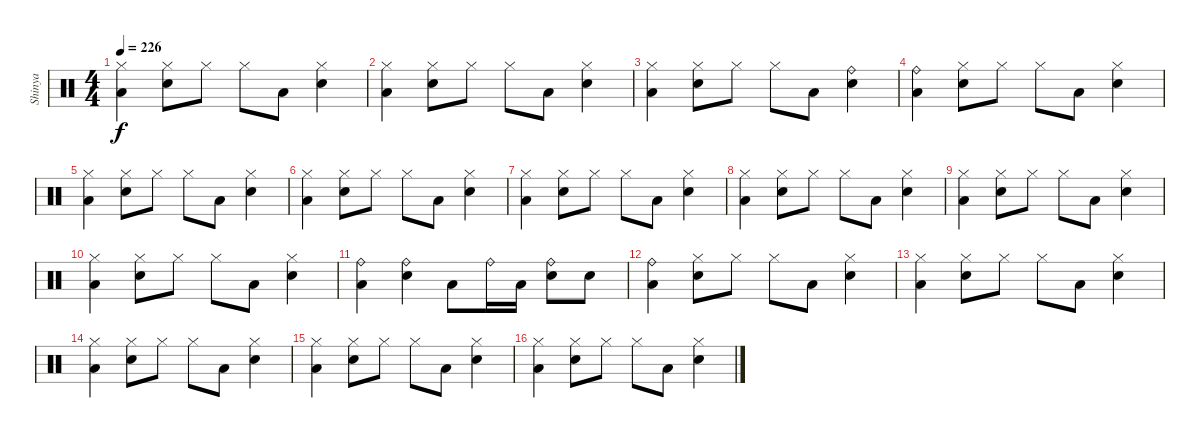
\track ("Shinya" "Shinya") {instrument percussion}
\staff {score}
\articulation defaults
\ts (4 4)
\tempo 226
\clef neutral
\ks c
("Hi-Hat (closed)" "Low Floor Tom (hit)").4{dy f} ("Hi-Hat (closed)" "Snare (hit) 2").8 "Hi-Hat (closed)".8 "Hi-Hat (closed)".8 "Low Floor Tom (hit)".8 ("Hi-Hat (closed)" "Snare (hit) 2").4 |
("Hi-Hat (closed)" "Low Floor Tom (hit)").4 ("Hi-Hat (closed)" "Snare (hit) 2").8 "Hi-Hat (closed)".8 "Hi-Hat (closed)".8 "Low Floor Tom (hit)".8 ("Hi-Hat (closed)" "Snare (hit) 2").4 |
("Hi-Hat (closed)" "Low Floor Tom (hit)").4 ("Hi-Hat (closed)" "Snare (hit) 2").8 "Hi-Hat (closed)".8 "Hi-Hat (closed)".8 "Low Floor Tom (hit)".8 ("Ride (bell)" "Snare (hit) 2").4 |
("Ride (bell)" "Low Floor Tom (hit)").4 ("Hi-Hat (closed)" "Snare (hit) 2").8 "Hi-Hat (closed)".8 "Hi-Hat (closed)".8 "Low Floor Tom (hit)".8 ("Hi-Hat (closed)" "Snare (hit) 2").4 |
("Hi-Hat (closed)" "Low Floor Tom (hit)").4 ("Hi-Hat (closed)" "Snare (hit) 2").8 "Hi-Hat (closed)".8 "Hi-Hat (closed)".8 "Low Floor Tom (hit)".8 ("Hi-Hat (closed)" "Snare (hit) 2").4 |
("Hi-Hat (closed)" "Low Floor Tom (hit)").4 ("Hi-Hat (closed)" "Snare (hit) 2").8 "Hi-Hat (closed)".8 "Hi-Hat (closed)".8 "Low Floor Tom (hit)".8 ("Hi-Hat (closed)" "Snare (hit) 2").4 |
("Hi-Hat (closed)" "Low Floor Tom (hit)").4 ("Hi-Hat (closed)" "Snare (hit) 2").8 "Hi-Hat (closed)".8 "Hi-Hat (closed)".8 "Low Floor Tom (hit)".8 ("Hi-Hat (closed)" "Snare (hit) 2").4 |
("Hi-Hat (closed)" "Low Floor Tom (hit)").4 ("Hi-Hat (closed)" "Snare (hit) 2").8 "Hi-Hat (closed)".8 "Hi-Hat (closed)".8 "Low Floor Tom (hit)".8 ("Hi-Hat (closed)" "Snare (hit) 2").4 |
("Hi-Hat (closed)" "Low Floor Tom (hit)").4 ("Hi-Hat (closed)" "Snare (hit) 2").8 "Hi-Hat (closed)".8 "Hi-Hat (closed)".8 "Low Floor Tom (hit)".8 ("Hi-Hat (closed)" "Snare (hit) 2").4 |
("Hi-Hat (closed)" "Low Floor Tom (hit)").4 ("Hi-Hat (closed)" "Snare (hit) 2").8 "Hi-Hat (closed)".8 "Hi-Hat (closed)".8 "Low Floor Tom (hit)".8 ("Hi-Hat (closed)" "Snare (hit) 2").4 |
("Ride (bell)" "Low Floor Tom (hit)").4 ("Ride (bell)" "Snare (hit) 2").4 "Low Floor Tom (hit)".8 "Ride (bell)".16 "Low Floor Tom (hit)".16 ("Ride (bell)" "Snare (hit) 2").8 "Snare (hit) 2".8 |
("Ride (bell)" "Low Floor Tom (hit)").4 ("Hi-Hat (closed)" "Snare (hit) 2").8 "Hi-Hat (closed)".8 "Hi-Hat (closed)".8 "Low Floor Tom (hit)".8 ("Hi-Hat (closed)" "Snare (hit) 2").4 |
("Hi-Hat (closed)" "Low Floor Tom (hit)").4 ("Hi-Hat (closed)" "Snare (hit) 2").8 "Hi-Hat (closed)".8 "Hi-Hat (closed)".8 "Low Floor Tom (hit)".8 ("Hi-Hat (closed)" "Snare (hit) 2").4 |
("Hi-Hat (closed)" "Low Floor Tom (hit)").4 ("Hi-Hat (closed)" "Snare (hit) 2").8 "Hi-Hat (closed)".8 "Hi-Hat (closed)".8 "Low Floor Tom (hit)".8 ("Hi-Hat (closed)" "Snare (hit) 2").4 |
("Hi-Hat (closed)" "Low Floor Tom (hit)").4 ("Hi-Hat (closed)" "Snare (hit) 2").8 "Hi-Hat (closed)".8 "Hi-Hat (closed)".8 "Low Floor Tom (hit)".8 ("Hi-Hat (closed)" "Snare (hit) 2").4 |
("Hi-Hat (closed)" "Low Floor Tom (hit)").4 ("Hi-Hat (closed)" "Snare (hit) 2").8 "Hi-Hat (closed)".8 "Hi-Hat (closed)".8 "Low Floor Tom (hit)".8 ("Hi-Hat (closed)" "Snare (hit) 2").4
